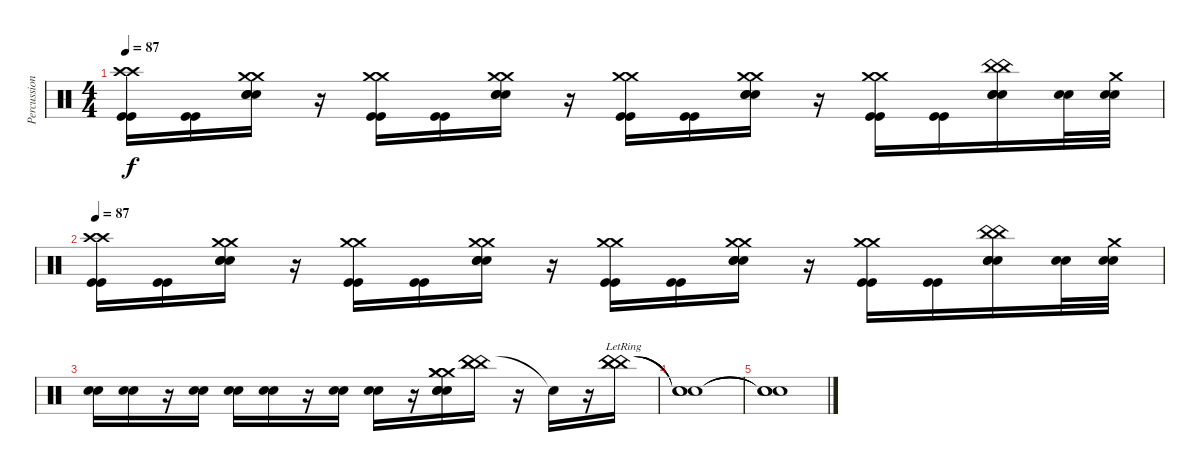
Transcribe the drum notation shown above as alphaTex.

\track ("Percussions (julien)" "Percussion") {instrument percussion}
\staff {score}
\articulation defaults
\ts (4 4)
\tempo 87
\clef neutral
\ks c
("Kick (hit)" "Kick (hit)" "Crash high (hit)" "Crash high (hit)").16{dy f} ("Kick (hit)" "Kick (hit)").16 ("Electric Snare (hit)" "Electric Snare (hit)" "Electric Snare (hit)" "Crash medium (hit)" "Crash medium (hit)").16 r.16 ("Kick (hit)" "Kick (hit)" "Crash medium (hit)" "Crash medium (hit)").16 ("Kick (hit)" "Kick (hit)").16 ("Electric Snare (hit)" "Electric Snare (hit)" "Electric Snare (hit)" "Crash medium (hit)" "Crash medium (hit)").16 r.16 ("Kick (hit)" "Kick (hit)" "Crash medium (hit)" "Crash medium (hit)").16 ("Kick (hit)" "Kick (hit)").16 ("Electric Snare (hit)" "Electric Snare (hit)" "Electric Snare (hit)" "Crash medium (hit)" "Crash medium (hit)").16 r.16 ("Kick (hit)" "Kick (hit)" "Crash medium (hit)" "Crash medium (hit)").16 ("Kick (hit)" "Kick (hit)").16 ("Electric Snare (hit)" "Electric Snare (hit)" "Electric Snare (hit)" "China (hit)" "China (hit)").16 ("Electric Snare (hit)" "Electric Snare (hit)").32 ("Electric Snare (hit)" "Electric Snare (hit)" "Crash medium (hit)").32 |
\tempo 87
("Kick (hit)" "Kick (hit)" "Crash high (hit)" "Crash high (hit)").16 ("Kick (hit)" "Kick (hit)").16 ("Electric Snare (hit)" "Electric Snare (hit)" "Electric Snare (hit)" "Crash medium (hit)" "Crash medium (hit)").16 r.16 ("Kick (hit)" "Kick (hit)" "Crash medium (hit)" "Crash medium (hit)").16 ("Kick (hit)" "Kick (hit)").16 ("Electric Snare (hit)" "Electric Snare (hit)" "Electric Snare (hit)" "Crash medium (hit)" "Crash medium (hit)").16 r.16 ("Kick (hit)" "Kick (hit)" "Crash medium (hit)" "Crash medium (hit)").16 ("Kick (hit)" "Kick (hit)").16 ("Electric Snare (hit)" "Electric Snare (hit)" "Electric Snare (hit)" "Crash medium (hit)" "Crash medium (hit)").16 r.16 ("Kick (hit)" "Kick (hit)" "Crash medium (hit)" "Crash medium (hit)").16 ("Kick (hit)" "Kick (hit)").16 ("Electric Snare (hit)" "Electric Snare (hit)" "Electric Snare (hit)" "China (hit)" "China (hit)").16 ("Electric Snare (hit)" "Electric Snare (hit)").32 ("Electric Snare (hit)" "Electric Snare (hit)" "Crash medium (hit)").32 |
("Electric Snare (hit)" "Electric Snare (hit)").16 ("Electric Snare (hit)" "Electric Snare (hit)").16 r.16 ("Electric Snare (hit)" "Electric Snare (hit)").16 ("Electric Snare (hit)" "Electric Snare (hit)").16 ("Electric Snare (hit)" "Electric Snare (hit)").16 r.16 ("Electric Snare (hit)" "Electric Snare (hit)").16 ("Electric Snare (hit)" "Electric Snare (hit)").16 r.16 ("Electric Snare (hit)" "Electric Snare (hit)" "Electric Snare (hit)" "Crash medium (hit)" "Crash medium (hit)" "Crash medium (hit)").16 ("China (hit)" "China (hit)" "China (hit)").16 r.16 "Snare (hit)"{t}.16 r.16 ("China (hit)"{lr} "China (hit)"{lr} "China (hit)"{lr}).16 |
("Snare (hit)"{t} "Snare (hit)"{t} "Snare (hit)"{t}).1 |
("Snare (hit)"{t} "Snare (hit)"{t} "Snare (hit)"{t}).1
